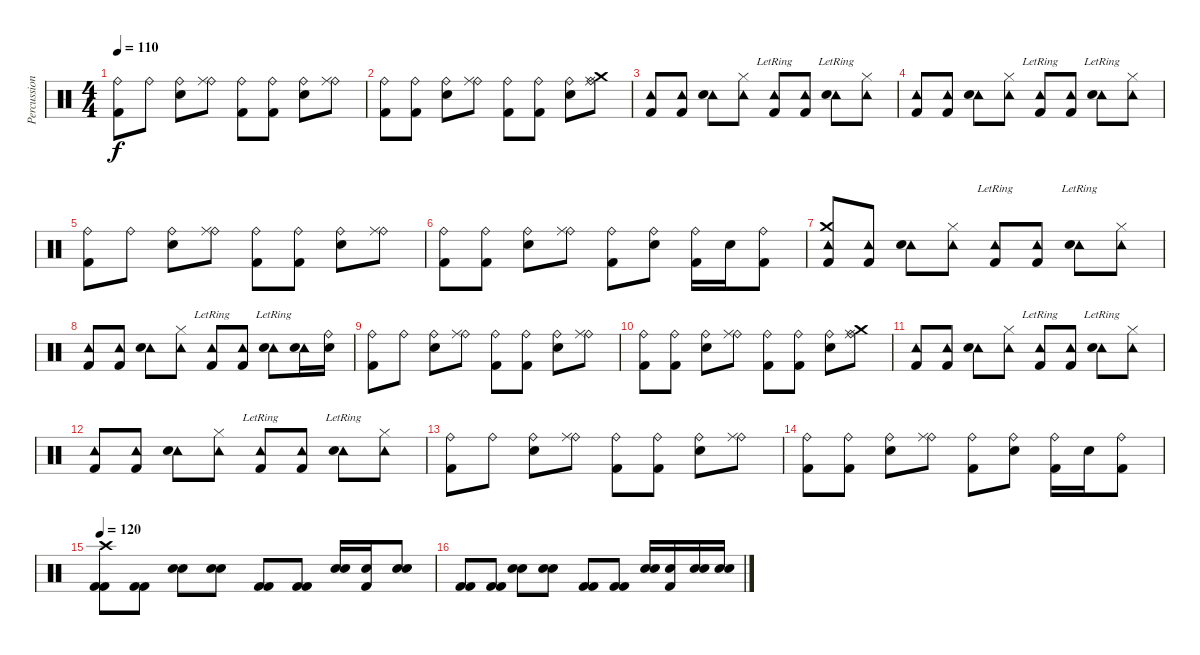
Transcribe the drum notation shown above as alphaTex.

\track ("Percussion" "Percussion") {instrument percussion}
\staff {score}
\articulation defaults
\ts (4 4)
\tempo 110
\clef neutral
\ks c
("Ride (bell)" "Kick (hit) 2").8{dy f} "Ride (bell)".8 ("Ride (bell)" "Electric Snare (hit)").8 ("Ride (bell)" "Ride (middle)").8 ("Ride (bell)" "Kick (hit) 2").8 ("Ride (bell)" "Kick (hit) 2").8 ("Ride (bell)" "Electric Snare (hit)").8 ("Ride (bell)" "Ride (middle)").8 |
("Ride (bell)" "Kick (hit) 2").8 ("Ride (bell)" "Kick (hit) 2").8 ("Ride (bell)" "Electric Snare (hit)").8 ("Ride (bell)" "Ride (middle)").8 ("Ride (bell)" "Kick (hit) 2").8 ("Ride (bell)" "Kick (hit) 2").8 ("Ride (bell)" "Electric Snare (hit)").8 ("Ride (bell)" "Ride (middle)" "Crash medium (hit)").8 |
("Tambourine (hit)" "Kick (hit) 2").8 ("Tambourine (hit)" "Kick (hit) 2").8 ("Tambourine (hit)" "Electric Snare (hit)").8 ("Tambourine (hit)" "Hi-Hat (closed)").8 ("Tambourine (hit)"{lr} "Kick (hit) 2").8 ("Tambourine (hit)" "Kick (hit) 2").8 ("Tambourine (hit)"{lr} "Electric Snare (hit)").8 ("Tambourine (hit)" "Hi-Hat (closed)").8 |
("Tambourine (hit)" "Kick (hit) 2").8 ("Tambourine (hit)" "Kick (hit) 2").8 ("Tambourine (hit)" "Electric Snare (hit)").8 ("Tambourine (hit)" "Hi-Hat (closed)").8 ("Tambourine (hit)"{lr} "Kick (hit) 2").8 ("Tambourine (hit)" "Kick (hit) 2").8 ("Tambourine (hit)"{lr} "Electric Snare (hit)").8 ("Tambourine (hit)" "Hi-Hat (closed)").8 |
("Ride (bell)" "Kick (hit) 2").8 "Ride (bell)".8 ("Ride (bell)" "Electric Snare (hit)").8 ("Ride (bell)" "Ride (middle)").8 ("Ride (bell)" "Kick (hit) 2").8 ("Ride (bell)" "Kick (hit) 2").8 ("Ride (bell)" "Electric Snare (hit)").8 ("Ride (bell)" "Ride (middle)").8 |
("Ride (bell)" "Kick (hit) 2").8 ("Ride (bell)" "Kick (hit) 2").8 ("Ride (bell)" "Electric Snare (hit)").8 ("Ride (bell)" "Ride (middle)").8 ("Ride (bell)" "Kick (hit) 2").8 ("Ride (bell)" "Electric Snare (hit)").8 ("Ride (bell)" "Kick (hit) 2").16 "Electric Snare (hit)".16 ("Ride (bell)" "Kick (hit) 2").8 |
("Tambourine (hit)" "Crash medium (hit)" "Kick (hit) 2").8 ("Tambourine (hit)" "Kick (hit) 2").8 ("Tambourine (hit)" "Electric Snare (hit)").8 ("Tambourine (hit)" "Hi-Hat (closed)").8 ("Tambourine (hit)"{lr} "Kick (hit) 2").8 ("Tambourine (hit)" "Kick (hit) 2").8 ("Tambourine (hit)"{lr} "Electric Snare (hit)").8 ("Tambourine (hit)" "Hi-Hat (closed)").8 |
("Tambourine (hit)" "Kick (hit) 2").8 ("Tambourine (hit)" "Kick (hit) 2").8 ("Tambourine (hit)" "Electric Snare (hit)").8 ("Tambourine (hit)" "Hi-Hat (closed)").8 ("Tambourine (hit)"{lr} "Kick (hit) 2").8 ("Tambourine (hit)" "Kick (hit) 2").8 ("Tambourine (hit)"{lr} "Electric Snare (hit)").8 ("Tambourine (hit)" "Electric Snare (hit)").16 ("Ride (bell)" "Electric Snare (hit)").16 |
("Ride (bell)" "Kick (hit) 2").8 "Ride (bell)".8 ("Ride (bell)" "Electric Snare (hit)").8 ("Ride (bell)" "Ride (middle)").8 ("Ride (bell)" "Kick (hit) 2").8 ("Ride (bell)" "Kick (hit) 2").8 ("Ride (bell)" "Electric Snare (hit)").8 ("Ride (bell)" "Ride (middle)").8 |
("Ride (bell)" "Kick (hit) 2").8 ("Ride (bell)" "Kick (hit) 2").8 ("Ride (bell)" "Electric Snare (hit)").8 ("Ride (bell)" "Ride (middle)").8 ("Ride (bell)" "Kick (hit) 2").8 ("Ride (bell)" "Kick (hit) 2").8 ("Ride (bell)" "Electric Snare (hit)").8 ("Ride (bell)" "Ride (middle)" "Crash medium (hit)").8 |
("Tambourine (hit)" "Kick (hit) 2").8 ("Tambourine (hit)" "Kick (hit) 2").8 ("Tambourine (hit)" "Electric Snare (hit)").8 ("Tambourine (hit)" "Hi-Hat (closed)").8 ("Tambourine (hit)"{lr} "Kick (hit) 2").8 ("Tambourine (hit)" "Kick (hit) 2").8 ("Tambourine (hit)"{lr} "Electric Snare (hit)").8 ("Tambourine (hit)" "Hi-Hat (closed)").8 |
("Tambourine (hit)" "Kick (hit) 2").8 ("Tambourine (hit)" "Kick (hit) 2").8 ("Tambourine (hit)" "Electric Snare (hit)").8 ("Tambourine (hit)" "Hi-Hat (closed)").8 ("Tambourine (hit)"{lr} "Kick (hit) 2").8 ("Tambourine (hit)" "Kick (hit) 2").8 ("Tambourine (hit)"{lr} "Electric Snare (hit)").8 ("Tambourine (hit)" "Hi-Hat (closed)").8 |
("Ride (bell)" "Kick (hit) 2").8 "Ride (bell)".8 ("Ride (bell)" "Electric Snare (hit)").8 ("Ride (bell)" "Ride (middle)").8 ("Ride (bell)" "Kick (hit) 2").8 ("Ride (bell)" "Kick (hit) 2").8 ("Ride (bell)" "Electric Snare (hit)").8 ("Ride (bell)" "Ride (middle)").8 |
("Ride (bell)" "Kick (hit) 2").8 ("Ride (bell)" "Kick (hit) 2").8 ("Ride (bell)" "Electric Snare (hit)").8 ("Ride (bell)" "Ride (middle)").8 ("Ride (bell)" "Kick (hit) 2").8 ("Ride (bell)" "Electric Snare (hit)").8 ("Ride (bell)" "Kick (hit) 2").16 "Electric Snare (hit)".16 ("Ride (bell)" "Kick (hit) 2").8 |
\tempo 120
("Crash high (hit)" "Kick (hit) 2" "Kick (hit) 2").8 ("Kick (hit) 2" "Kick (hit) 2").8 ("Electric Snare (hit)" "Electric Snare (hit)").8 ("Electric Snare (hit)" "Electric Snare (hit)").8 ("Kick (hit) 2" "Kick (hit) 2").8 ("Kick (hit) 2" "Kick (hit) 2").8 ("Electric Snare (hit)" "Electric Snare (hit)").16 ("Electric Snare (hit)" "Kick (hit) 2").16 ("Electric Snare (hit)" "Electric Snare (hit)").8 |
("Kick (hit) 2" "Kick (hit) 2").8 ("Kick (hit) 2" "Kick (hit) 2").8 ("Electric Snare (hit)" "Electric Snare (hit)").8 ("Electric Snare (hit)" "Electric Snare (hit)").8 ("Kick (hit) 2" "Kick (hit) 2").8 ("Kick (hit) 2" "Kick (hit) 2").8 ("Electric Snare (hit)" "Electric Snare (hit)").16 ("Electric Snare (hit)" "Kick (hit) 2").16 ("Electric Snare (hit)" "Electric Snare (hit)").16 ("Electric Snare (hit)" "Electric Snare (hit)").16
